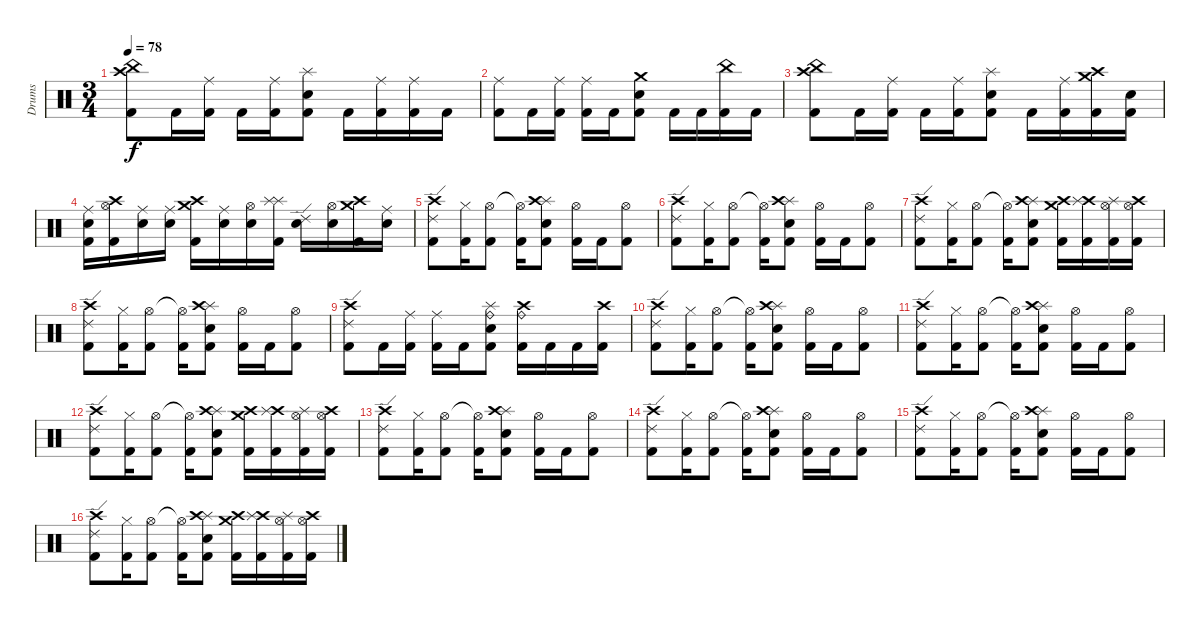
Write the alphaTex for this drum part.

\track ("Drums" "Drums") {instrument percussion}
\staff {score}
\articulation defaults
\ts (3 4)
\tempo 78
\clef neutral
\ks c
("China (hit)" "Crash high (hit)" "Kick (hit) 2").8{dy f} "Kick (hit) 2".16 ("Ride (middle)" "Kick (hit) 2").16 "Kick (hit) 2".16 ("Ride (middle)" "Kick (hit) 2").16 ("Splash (hit)" "Snare (hit) 2" "Kick (hit) 2").8 "Kick (hit) 2".16 ("Ride (middle)" "Kick (hit) 2").16 ("Ride (middle)" "Kick (hit) 2").16 "Kick (hit) 2".16 |
("Ride (middle)" "Kick (hit) 2").8 "Kick (hit) 2".16 ("Ride (middle)" "Kick (hit) 2").16 ("Ride (middle)" "Kick (hit) 2").16 "Kick (hit) 2".16 ("Crash medium (hit)" "Snare (hit) 2" "Kick (hit) 2").8 "Kick (hit) 2".16 "Kick (hit) 2".16 ("China (hit)" "Kick (hit) 2").16 "Kick (hit) 2".16 |
("China (hit)" "Crash high (hit)" "Kick (hit) 2").8 "Kick (hit) 2".16 ("Ride (middle)" "Kick (hit) 2").16 "Kick (hit) 2".16 ("Ride (middle)" "Kick (hit) 2").16 ("Splash (hit)" "Snare (hit) 2" "Kick (hit) 2").8 "Kick (hit) 2".16 ("Ride (middle)" "Kick (hit) 2").16 ("Crash medium (hit)" "Crash high (hit)" "Kick (hit) 2").16 ("Snare (hit) 2" "Kick (hit) 2").16 |
("Ride (middle)" "Snare (hit) 2" "Kick (hit) 2").16 ("Hi-Hat (open)" "Crash high (hit)" "Kick (hit) 2").16 ("Ride (middle)" "Snare (hit) 2").16 ("Ride (middle)" "Snare (hit) 2").16 ("Crash medium (hit)" "Crash high (hit)" "Kick (hit) 2").16 ("Ride (middle)" "Snare (hit) 2").16 ("Hi-Hat (open)" "Snare (hit) 2").16 ("Splash (hit)" "Splash (hit)" "Kick (hit) 2").16 ("Ride (edge) 2" "Snare (hit) 2").16 ("Hi-Hat (open)" "Snare (hit) 2").16 ("Crash medium (hit)" "Crash high (hit)" "Kick (hit) 2").16 ("Ride (middle)" "Snare (hit) 2").16 |
("Crash high (hit)" "Ride (edge) 2" "Kick (hit) 2").8 ("Hi-Hat (closed)" "Kick (hit) 2").16 ("Hi-Hat (open)" "Kick (hit) 2").8 ("Hi-Hat (open)"{t} "Kick (hit) 2").16 ("Splash (hit)" "Crash high (hit)" "Snare (hit) 2" "Kick (hit) 2").8 ("Hi-Hat (open)" "Kick (hit) 2").16 "Kick (hit) 2".16 ("Hi-Hat (open)" "Kick (hit) 2").8 |
("Crash high (hit)" "Ride (edge) 2" "Kick (hit) 2").8 ("Hi-Hat (closed)" "Kick (hit) 2").16 ("Hi-Hat (open)" "Kick (hit) 2").8 ("Hi-Hat (open)"{t} "Kick (hit) 2").16 ("Splash (hit)" "Crash high (hit)" "Snare (hit) 2" "Kick (hit) 2").8 ("Hi-Hat (open)" "Kick (hit) 2").16 "Kick (hit) 2".16 ("Hi-Hat (open)" "Kick (hit) 2").8 |
("Crash high (hit)" "Ride (edge) 2" "Kick (hit) 2").8 ("Hi-Hat (closed)" "Kick (hit) 2").16 ("Hi-Hat (open)" "Kick (hit) 2").8 ("Hi-Hat (open)"{t} "Kick (hit) 2").16 ("Splash (hit)" "Crash high (hit)" "Snare (hit) 2" "Kick (hit) 2").8 ("Crash medium (hit)" "Crash high (hit)" "Kick (hit) 2").16 ("Crash high (hit)" "Splash (hit)" "Kick (hit) 2").16 ("Hi-Hat (open)" "Splash (hit)" "Kick (hit) 2").16 ("Hi-Hat (open)" "Crash high (hit)" "Kick (hit) 2").16 |
("Crash high (hit)" "Ride (edge) 2" "Kick (hit) 2").8 ("Hi-Hat (closed)" "Kick (hit) 2").16 ("Hi-Hat (open)" "Kick (hit) 2").8 ("Hi-Hat (open)"{t} "Kick (hit) 2").16 ("Splash (hit)" "Crash high (hit)" "Snare (hit) 2" "Kick (hit) 2").8 ("Hi-Hat (open)" "Kick (hit) 2").16 "Kick (hit) 2".16 ("Hi-Hat (open)" "Kick (hit) 2").8 |
("Crash high (hit)" "Ride (edge) 2" "Kick (hit) 2").8 "Kick (hit) 2".16 ("Ride (middle)" "Kick (hit) 2").16 ("Ride (middle)" "Kick (hit) 2").16 "Kick (hit) 2".16 ("Ride (bell)" "Splash (hit)" "Snare (hit) 2" "Kick (hit) 2").8 ("Ride (bell)" "Crash high (hit)" "Kick (hit) 2").16 "Kick (hit) 2".16 "Kick (hit) 2".16 ("Crash high (hit)" "Kick (hit) 2").16 |
("Crash high (hit)" "Ride (edge) 2" "Kick (hit) 2").8 ("Hi-Hat (closed)" "Kick (hit) 2").16 ("Hi-Hat (open)" "Kick (hit) 2").8 ("Hi-Hat (open)"{t} "Kick (hit) 2").16 ("Splash (hit)" "Crash high (hit)" "Snare (hit) 2" "Kick (hit) 2").8 ("Hi-Hat (open)" "Kick (hit) 2").16 "Kick (hit) 2".16 ("Hi-Hat (open)" "Kick (hit) 2").8 |
("Crash high (hit)" "Ride (edge) 2" "Kick (hit) 2").8 ("Hi-Hat (closed)" "Kick (hit) 2").16 ("Hi-Hat (open)" "Kick (hit) 2").8 ("Hi-Hat (open)"{t} "Kick (hit) 2").16 ("Splash (hit)" "Crash high (hit)" "Snare (hit) 2" "Kick (hit) 2").8 ("Hi-Hat (open)" "Kick (hit) 2").16 "Kick (hit) 2".16 ("Hi-Hat (open)" "Kick (hit) 2").8 |
("Crash high (hit)" "Ride (edge) 2" "Kick (hit) 2").8 ("Hi-Hat (closed)" "Kick (hit) 2").16 ("Hi-Hat (open)" "Kick (hit) 2").8 ("Hi-Hat (open)"{t} "Kick (hit) 2").16 ("Splash (hit)" "Crash high (hit)" "Snare (hit) 2" "Kick (hit) 2").8 ("Crash medium (hit)" "Crash high (hit)" "Kick (hit) 2").16 ("Crash high (hit)" "Splash (hit)" "Kick (hit) 2").16 ("Hi-Hat (open)" "Splash (hit)" "Kick (hit) 2").16 ("Hi-Hat (open)" "Crash high (hit)" "Kick (hit) 2").16 |
("Crash high (hit)" "Ride (edge) 2" "Kick (hit) 2").8 ("Hi-Hat (closed)" "Kick (hit) 2").16 ("Hi-Hat (open)" "Kick (hit) 2").8 ("Hi-Hat (open)"{t} "Kick (hit) 2").16 ("Splash (hit)" "Crash high (hit)" "Snare (hit) 2" "Kick (hit) 2").8 ("Hi-Hat (open)" "Kick (hit) 2").16 "Kick (hit) 2".16 ("Hi-Hat (open)" "Kick (hit) 2").8 |
("Crash high (hit)" "Ride (edge) 2" "Kick (hit) 2").8 ("Hi-Hat (closed)" "Kick (hit) 2").16 ("Hi-Hat (open)" "Kick (hit) 2").8 ("Hi-Hat (open)"{t} "Kick (hit) 2").16 ("Splash (hit)" "Crash high (hit)" "Snare (hit) 2" "Kick (hit) 2").8 ("Hi-Hat (open)" "Kick (hit) 2").16 "Kick (hit) 2".16 ("Hi-Hat (open)" "Kick (hit) 2").8 |
("Crash high (hit)" "Ride (edge) 2" "Kick (hit) 2").8 ("Hi-Hat (closed)" "Kick (hit) 2").16 ("Hi-Hat (open)" "Kick (hit) 2").8 ("Hi-Hat (open)"{t} "Kick (hit) 2").16 ("Splash (hit)" "Crash high (hit)" "Snare (hit) 2" "Kick (hit) 2").8 ("Hi-Hat (open)" "Kick (hit) 2").16 "Kick (hit) 2".16 ("Hi-Hat (open)" "Kick (hit) 2").8 |
("Crash high (hit)" "Ride (edge) 2" "Kick (hit) 2").8 ("Hi-Hat (closed)" "Kick (hit) 2").16 ("Hi-Hat (open)" "Kick (hit) 2").8 ("Hi-Hat (open)"{t} "Kick (hit) 2").16 ("Splash (hit)" "Crash high (hit)" "Snare (hit) 2" "Kick (hit) 2").8 ("Crash medium (hit)" "Crash high (hit)" "Kick (hit) 2").16 ("Crash high (hit)" "Splash (hit)" "Kick (hit) 2").16 ("Hi-Hat (open)" "Splash (hit)" "Kick (hit) 2").16 ("Hi-Hat (open)" "Crash high (hit)" "Kick (hit) 2").16
